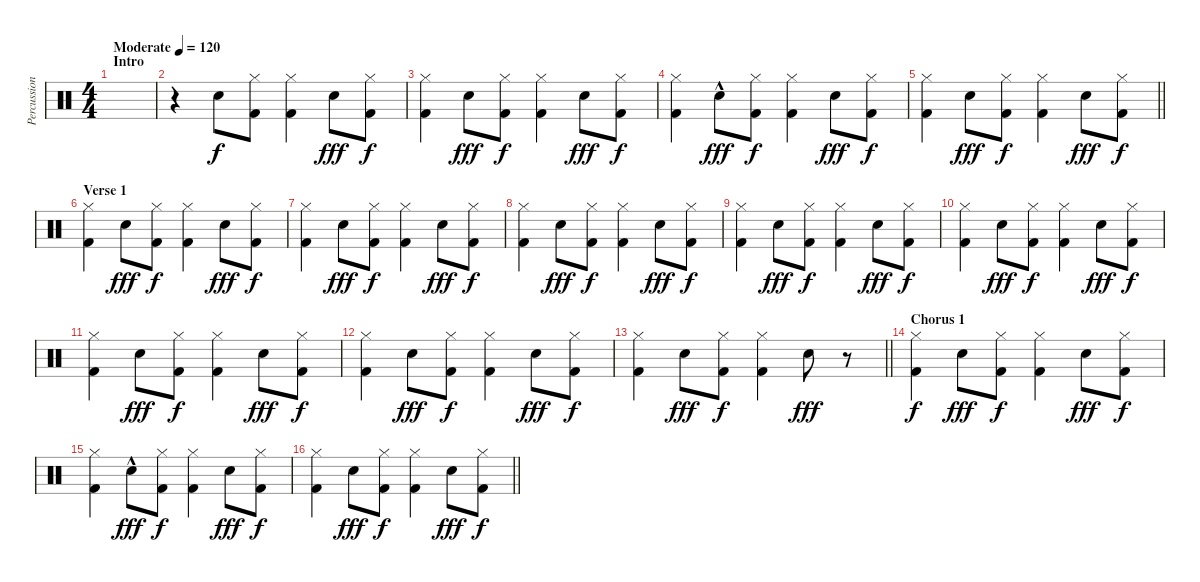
\track ("Percussion" "Percussion") {instrument percussion}
\staff {score}
\articulation defaults
\ts (4 4)
\section ("" "Intro")
\tempo (120 "Moderate")
\clef neutral
\ks c
|
r.4 "Snare (hit) 2".8 ("Kick (hit) 2" "Hi-Hat (closed)").8{dy f} ("Kick (hit) 2" "Hi-Hat (closed)").4 "Snare (hit) 2".8{dy fff} ("Kick (hit) 2" "Hi-Hat (closed)").8{dy f} |
("Kick (hit) 2" "Hi-Hat (closed)").4 "Snare (hit) 2".8{dy fff} ("Kick (hit) 2" "Hi-Hat (closed)").8{dy f} ("Kick (hit) 2" "Hi-Hat (closed)").4 "Snare (hit) 2".8{dy fff} ("Kick (hit) 2" "Hi-Hat (closed)").8{dy f} |
("Kick (hit) 2" "Hi-Hat (closed)").4 "Snare (hit) 2"{hac}.8{dy fff} ("Kick (hit) 2" "Hi-Hat (closed)").8{dy f} ("Kick (hit) 2" "Hi-Hat (closed)").4 "Snare (hit) 2".8{dy fff} ("Kick (hit) 2" "Hi-Hat (closed)").8{dy f} |
\barLineRight lightlight
("Kick (hit) 2" "Hi-Hat (closed)").4 "Snare (hit) 2".8{dy fff} ("Kick (hit) 2" "Hi-Hat (closed)").8{dy f} ("Kick (hit) 2" "Hi-Hat (closed)").4 "Snare (hit) 2".8{dy fff} ("Kick (hit) 2" "Hi-Hat (closed)").8{dy f} |
\section ("" "Verse 1")
("Kick (hit) 2" "Hi-Hat (closed)").4 "Snare (hit) 2".8{dy fff} ("Kick (hit) 2" "Hi-Hat (closed)").8{dy f} ("Kick (hit) 2" "Hi-Hat (closed)").4 "Snare (hit) 2".8{dy fff} ("Kick (hit) 2" "Hi-Hat (closed)").8{dy f} |
("Kick (hit) 2" "Hi-Hat (closed)").4 "Snare (hit) 2".8{dy fff} ("Kick (hit) 2" "Hi-Hat (closed)").8{dy f} ("Kick (hit) 2" "Hi-Hat (closed)").4 "Snare (hit) 2".8{dy fff} ("Kick (hit) 2" "Hi-Hat (closed)").8{dy f} |
("Kick (hit) 2" "Hi-Hat (closed)").4 "Snare (hit) 2".8{dy fff} ("Kick (hit) 2" "Hi-Hat (closed)").8{dy f} ("Kick (hit) 2" "Hi-Hat (closed)").4 "Snare (hit) 2".8{dy fff} ("Kick (hit) 2" "Hi-Hat (closed)").8{dy f} |
("Kick (hit) 2" "Hi-Hat (closed)").4 "Snare (hit) 2".8{dy fff} ("Kick (hit) 2" "Hi-Hat (closed)").8{dy f} ("Kick (hit) 2" "Hi-Hat (closed)").4 "Snare (hit) 2".8{dy fff} ("Kick (hit) 2" "Hi-Hat (closed)").8{dy f} |
("Kick (hit) 2" "Hi-Hat (closed)").4 "Snare (hit) 2".8{dy fff} ("Kick (hit) 2" "Hi-Hat (closed)").8{dy f} ("Kick (hit) 2" "Hi-Hat (closed)").4 "Snare (hit) 2".8{dy fff} ("Kick (hit) 2" "Hi-Hat (closed)").8{dy f} |
("Kick (hit) 2" "Hi-Hat (closed)").4 "Snare (hit) 2".8{dy fff} ("Kick (hit) 2" "Hi-Hat (closed)").8{dy f} ("Kick (hit) 2" "Hi-Hat (closed)").4 "Snare (hit) 2".8{dy fff} ("Kick (hit) 2" "Hi-Hat (closed)").8{dy f} |
("Kick (hit) 2" "Hi-Hat (closed)").4 "Snare (hit) 2".8{dy fff} ("Kick (hit) 2" "Hi-Hat (closed)").8{dy f} ("Kick (hit) 2" "Hi-Hat (closed)").4 "Snare (hit) 2".8{dy fff} ("Kick (hit) 2" "Hi-Hat (closed)").8{dy f} |
\barLineRight lightlight
("Kick (hit) 2" "Hi-Hat (closed)").4 "Snare (hit) 2".8{dy fff} ("Kick (hit) 2" "Hi-Hat (closed)").8{dy f} ("Kick (hit) 2" "Hi-Hat (closed)").4 "Snare (hit) 2".8{dy fff} r.8 |
\section ("" "Chorus 1")
("Kick (hit) 2" "Hi-Hat (closed)").4{dy f} "Snare (hit) 2".8{dy fff} ("Kick (hit) 2" "Hi-Hat (closed)").8{dy f} ("Kick (hit) 2" "Hi-Hat (closed)").4 "Snare (hit) 2".8{dy fff} ("Kick (hit) 2" "Hi-Hat (closed)").8{dy f} |
("Kick (hit) 2" "Hi-Hat (closed)").4 "Snare (hit) 2"{hac}.8{dy fff} ("Kick (hit) 2" "Hi-Hat (closed)").8{dy f} ("Kick (hit) 2" "Hi-Hat (closed)").4 "Snare (hit) 2".8{dy fff} ("Kick (hit) 2" "Hi-Hat (closed)").8{dy f} |
\barLineRight lightlight
("Kick (hit) 2" "Hi-Hat (closed)").4 "Snare (hit) 2".8{dy fff} ("Kick (hit) 2" "Hi-Hat (closed)").8{dy f} ("Kick (hit) 2" "Hi-Hat (closed)").4 "Snare (hit) 2".8{dy fff} ("Kick (hit) 2" "Hi-Hat (closed)").8{dy f}
